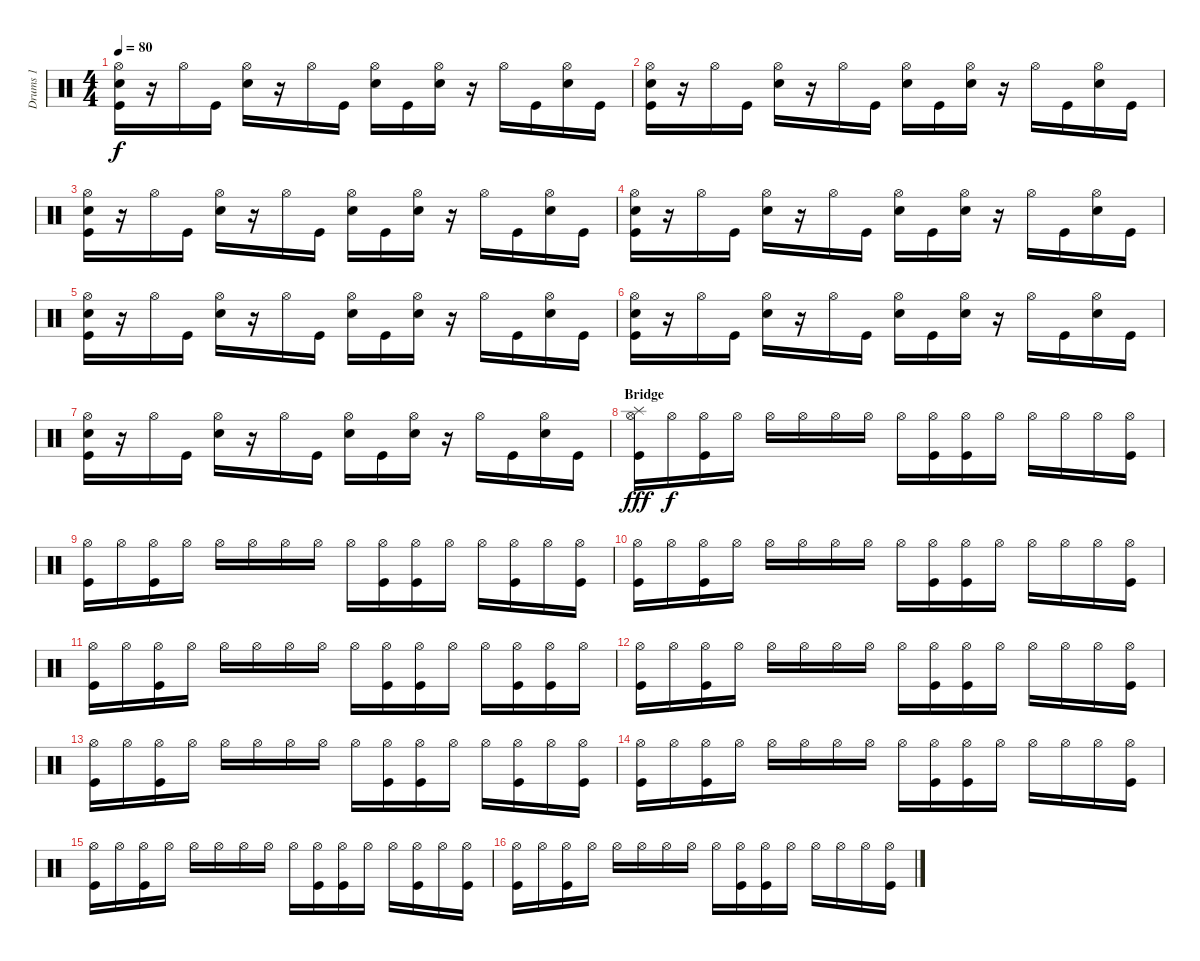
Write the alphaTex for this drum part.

\track ("Drums 1" "Drums 1") {instrument percussion}
\staff {score}
\articulation defaults
\ts (4 4)
\tempo 80
\clef neutral
\ks c
("Hi-Hat (open)" "Electric Snare (hit)" "Kick (hit)").16{dy f} r.16 "Hi-Hat (open)".16 "Kick (hit)".16 ("Hi-Hat (open)" "Electric Snare (hit)").16 r.16 "Hi-Hat (open)".16 "Kick (hit)".16 ("Hi-Hat (open)" "Electric Snare (hit)").16 "Kick (hit)".16 ("Hi-Hat (open)" "Electric Snare (hit)").16 r.16 "Hi-Hat (open)".16 "Kick (hit)".16 ("Hi-Hat (open)" "Electric Snare (hit)").16 "Kick (hit)".16 |
("Hi-Hat (open)" "Electric Snare (hit)" "Kick (hit)").16 r.16 "Hi-Hat (open)".16 "Kick (hit)".16 ("Hi-Hat (open)" "Electric Snare (hit)").16 r.16 "Hi-Hat (open)".16 "Kick (hit)".16 ("Hi-Hat (open)" "Electric Snare (hit)").16 "Kick (hit)".16 ("Hi-Hat (open)" "Electric Snare (hit)").16 r.16 "Hi-Hat (open)".16 "Kick (hit)".16 ("Hi-Hat (open)" "Electric Snare (hit)").16 "Kick (hit)".16 |
("Hi-Hat (open)" "Electric Snare (hit)" "Kick (hit)").16 r.16 "Hi-Hat (open)".16 "Kick (hit)".16 ("Hi-Hat (open)" "Electric Snare (hit)").16 r.16 "Hi-Hat (open)".16 "Kick (hit)".16 ("Hi-Hat (open)" "Electric Snare (hit)").16 "Kick (hit)".16 ("Hi-Hat (open)" "Electric Snare (hit)").16 r.16 "Hi-Hat (open)".16 "Kick (hit)".16 ("Hi-Hat (open)" "Electric Snare (hit)").16 "Kick (hit)".16 |
("Hi-Hat (open)" "Electric Snare (hit)" "Kick (hit)").16 r.16 "Hi-Hat (open)".16 "Kick (hit)".16 ("Hi-Hat (open)" "Electric Snare (hit)").16 r.16 "Hi-Hat (open)".16 "Kick (hit)".16 ("Hi-Hat (open)" "Electric Snare (hit)").16 "Kick (hit)".16 ("Hi-Hat (open)" "Electric Snare (hit)").16 r.16 "Hi-Hat (open)".16 "Kick (hit)".16 ("Hi-Hat (open)" "Electric Snare (hit)").16 "Kick (hit)".16 |
("Hi-Hat (open)" "Electric Snare (hit)" "Kick (hit)").16 r.16 "Hi-Hat (open)".16 "Kick (hit)".16 ("Hi-Hat (open)" "Electric Snare (hit)").16 r.16 "Hi-Hat (open)".16 "Kick (hit)".16 ("Hi-Hat (open)" "Electric Snare (hit)").16 "Kick (hit)".16 ("Hi-Hat (open)" "Electric Snare (hit)").16 r.16 "Hi-Hat (open)".16 "Kick (hit)".16 ("Hi-Hat (open)" "Electric Snare (hit)").16 "Kick (hit)".16 |
("Hi-Hat (open)" "Electric Snare (hit)" "Kick (hit)").16 r.16 "Hi-Hat (open)".16 "Kick (hit)".16 ("Hi-Hat (open)" "Electric Snare (hit)").16 r.16 "Hi-Hat (open)".16 "Kick (hit)".16 ("Hi-Hat (open)" "Electric Snare (hit)").16 "Kick (hit)".16 ("Hi-Hat (open)" "Electric Snare (hit)").16 r.16 "Hi-Hat (open)".16 "Kick (hit)".16 ("Hi-Hat (open)" "Electric Snare (hit)").16 "Kick (hit)".16 |
("Hi-Hat (open)" "Electric Snare (hit)" "Kick (hit)").16 r.16 "Hi-Hat (open)".16 "Kick (hit)".16 ("Hi-Hat (open)" "Electric Snare (hit)").16 r.16 "Hi-Hat (open)".16 "Kick (hit)".16 ("Hi-Hat (open)" "Electric Snare (hit)").16 "Kick (hit)".16 ("Hi-Hat (open)" "Electric Snare (hit)").16 r.16 "Hi-Hat (open)".16 "Kick (hit)".16 ("Hi-Hat (open)" "Electric Snare (hit)").16 "Kick (hit)".16 |
\section ("" "Bridge")
("Splash (hit)" "Hi-Hat (open)" "Kick (hit)").16{dy fff volume 11} "Hi-Hat (open)".16{dy f} ("Hi-Hat (open)" "Kick (hit)").16 "Hi-Hat (open)".16 "Hi-Hat (open)".16 "Hi-Hat (open)".16 "Hi-Hat (open)".16 "Hi-Hat (open)".16 "Hi-Hat (open)".16 ("Hi-Hat (open)" "Kick (hit)").16 ("Hi-Hat (open)" "Kick (hit)").16 "Hi-Hat (open)".16 "Hi-Hat (open)".16 "Hi-Hat (open)".16 "Hi-Hat (open)".16 ("Hi-Hat (open)" "Kick (hit)").16 |
("Hi-Hat (open)" "Kick (hit)").16 "Hi-Hat (open)".16 ("Hi-Hat (open)" "Kick (hit)").16 "Hi-Hat (open)".16 "Hi-Hat (open)".16 "Hi-Hat (open)".16 "Hi-Hat (open)".16 "Hi-Hat (open)".16 "Hi-Hat (open)".16 ("Hi-Hat (open)" "Kick (hit)").16 ("Hi-Hat (open)" "Kick (hit)").16 "Hi-Hat (open)".16 "Hi-Hat (open)".16 ("Hi-Hat (open)" "Kick (hit)").16 "Hi-Hat (open)".16 ("Hi-Hat (open)" "Kick (hit)").16 |
("Hi-Hat (open)" "Kick (hit)").16 "Hi-Hat (open)".16 ("Hi-Hat (open)" "Kick (hit)").16 "Hi-Hat (open)".16 "Hi-Hat (open)".16 "Hi-Hat (open)".16 "Hi-Hat (open)".16 "Hi-Hat (open)".16 "Hi-Hat (open)".16 ("Hi-Hat (open)" "Kick (hit)").16 ("Hi-Hat (open)" "Kick (hit)").16 "Hi-Hat (open)".16 "Hi-Hat (open)".16 "Hi-Hat (open)".16 "Hi-Hat (open)".16 ("Hi-Hat (open)" "Kick (hit)").16 |
("Hi-Hat (open)" "Kick (hit)").16 "Hi-Hat (open)".16 ("Hi-Hat (open)" "Kick (hit)").16 "Hi-Hat (open)".16 "Hi-Hat (open)".16 "Hi-Hat (open)".16 "Hi-Hat (open)".16 "Hi-Hat (open)".16 "Hi-Hat (open)".16 ("Hi-Hat (open)" "Kick (hit)").16 ("Hi-Hat (open)" "Kick (hit)").16 "Hi-Hat (open)".16 "Hi-Hat (open)".16 ("Hi-Hat (open)" "Kick (hit)").16 ("Hi-Hat (open)" "Kick (hit)").16 "Hi-Hat (open)".16 |
("Hi-Hat (open)" "Kick (hit)").16 "Hi-Hat (open)".16 ("Hi-Hat (open)" "Kick (hit)").16 "Hi-Hat (open)".16 "Hi-Hat (open)".16 "Hi-Hat (open)".16 "Hi-Hat (open)".16 "Hi-Hat (open)".16 "Hi-Hat (open)".16 ("Hi-Hat (open)" "Kick (hit)").16 ("Hi-Hat (open)" "Kick (hit)").16 "Hi-Hat (open)".16 "Hi-Hat (open)".16 "Hi-Hat (open)".16 "Hi-Hat (open)".16 ("Hi-Hat (open)" "Kick (hit)").16 |
("Hi-Hat (open)" "Kick (hit)").16 "Hi-Hat (open)".16 ("Hi-Hat (open)" "Kick (hit)").16 "Hi-Hat (open)".16 "Hi-Hat (open)".16 "Hi-Hat (open)".16 "Hi-Hat (open)".16 "Hi-Hat (open)".16 "Hi-Hat (open)".16 ("Hi-Hat (open)" "Kick (hit)").16 ("Hi-Hat (open)" "Kick (hit)").16 "Hi-Hat (open)".16 "Hi-Hat (open)".16 ("Hi-Hat (open)" "Kick (hit)").16 "Hi-Hat (open)".16 ("Hi-Hat (open)" "Kick (hit)").16 |
("Hi-Hat (open)" "Kick (hit)").16 "Hi-Hat (open)".16 ("Hi-Hat (open)" "Kick (hit)").16 "Hi-Hat (open)".16 "Hi-Hat (open)".16 "Hi-Hat (open)".16 "Hi-Hat (open)".16 "Hi-Hat (open)".16 "Hi-Hat (open)".16 ("Hi-Hat (open)" "Kick (hit)").16 ("Hi-Hat (open)" "Kick (hit)").16 "Hi-Hat (open)".16 "Hi-Hat (open)".16 "Hi-Hat (open)".16 "Hi-Hat (open)".16 ("Hi-Hat (open)" "Kick (hit)").16 |
("Hi-Hat (open)" "Kick (hit)").16 "Hi-Hat (open)".16 ("Hi-Hat (open)" "Kick (hit)").16 "Hi-Hat (open)".16 "Hi-Hat (open)".16 "Hi-Hat (open)".16 "Hi-Hat (open)".16 "Hi-Hat (open)".16 "Hi-Hat (open)".16 ("Hi-Hat (open)" "Kick (hit)").16 ("Hi-Hat (open)" "Kick (hit)").16 "Hi-Hat (open)".16 "Hi-Hat (open)".16 ("Hi-Hat (open)" "Kick (hit)").16 "Hi-Hat (open)".16 ("Hi-Hat (open)" "Kick (hit)").16 |
("Hi-Hat (open)" "Kick (hit)").16 "Hi-Hat (open)".16 ("Hi-Hat (open)" "Kick (hit)").16 "Hi-Hat (open)".16 "Hi-Hat (open)".16 "Hi-Hat (open)".16 "Hi-Hat (open)".16 "Hi-Hat (open)".16 "Hi-Hat (open)".16 ("Hi-Hat (open)" "Kick (hit)").16 ("Hi-Hat (open)" "Kick (hit)").16 "Hi-Hat (open)".16 "Hi-Hat (open)".16 "Hi-Hat (open)".16 "Hi-Hat (open)".16 ("Hi-Hat (open)" "Kick (hit)").16
